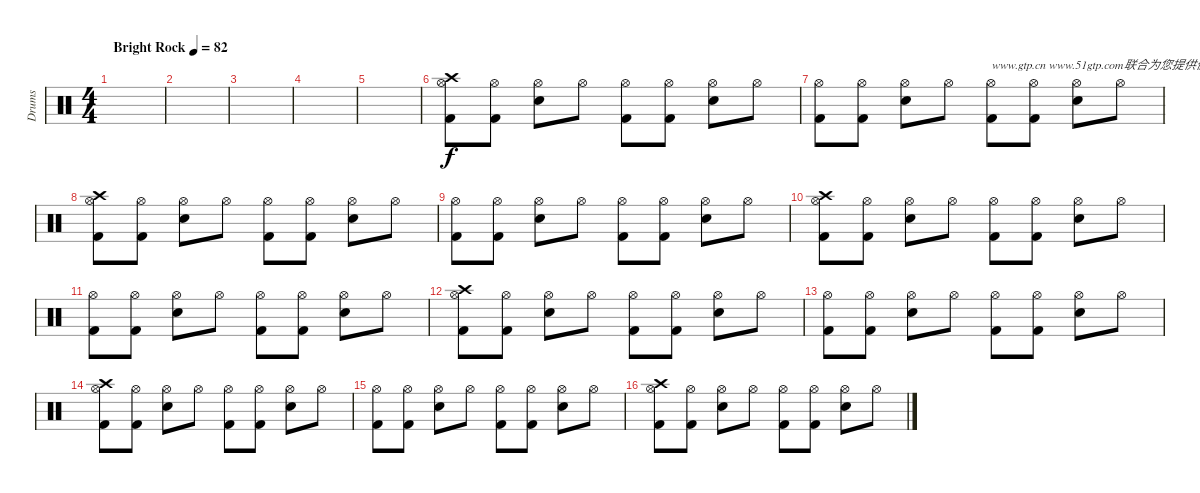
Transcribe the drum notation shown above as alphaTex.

\track ("Drums" "Drums") {instrument percussion}
\staff {score}
\articulation defaults
\ts (4 4)
\tempo (82 "Bright Rock")
\clef neutral
\ks c
|
|
|
|
|
("Hi-Hat (open)" "Crash high (hit)" "Kick (hit) 2").8 ("Hi-Hat (open)" "Kick (hit) 2").8 ("Hi-Hat (open)" "Electric Snare (hit)").8 "Hi-Hat (open)".8 ("Hi-Hat (open)" "Kick (hit) 2").8 ("Hi-Hat (open)" "Kick (hit) 2").8 ("Hi-Hat (open)" "Electric Snare (hit)").8 "Hi-Hat (open)".8 |
("Hi-Hat (open)" "Kick (hit) 2").8 ("Hi-Hat (open)" "Kick (hit) 2").8 ("Hi-Hat (open)" "Electric Snare (hit)").8 "Hi-Hat (open)".8 ("Hi-Hat (open)" "Kick (hit) 2").8{txt "www.gtp.cn www.51gtp.com联合为您提供优秀的GTP!"} ("Hi-Hat (open)" "Kick (hit) 2").8 ("Hi-Hat (open)" "Electric Snare (hit)").8 "Hi-Hat (open)".8 |
("Hi-Hat (open)" "Crash high (hit)" "Kick (hit) 2").8 ("Hi-Hat (open)" "Kick (hit) 2").8 ("Hi-Hat (open)" "Electric Snare (hit)").8 "Hi-Hat (open)".8 ("Hi-Hat (open)" "Kick (hit) 2").8 ("Hi-Hat (open)" "Kick (hit) 2").8 ("Hi-Hat (open)" "Electric Snare (hit)").8 "Hi-Hat (open)".8 |
("Hi-Hat (open)" "Kick (hit) 2").8 ("Hi-Hat (open)" "Kick (hit) 2").8 ("Hi-Hat (open)" "Electric Snare (hit)").8 "Hi-Hat (open)".8 ("Hi-Hat (open)" "Kick (hit) 2").8 ("Hi-Hat (open)" "Kick (hit) 2").8 ("Hi-Hat (open)" "Electric Snare (hit)").8 "Hi-Hat (open)".8 |
("Hi-Hat (open)" "Crash high (hit)" "Kick (hit) 2").8 ("Hi-Hat (open)" "Kick (hit) 2").8 ("Hi-Hat (open)" "Electric Snare (hit)").8 "Hi-Hat (open)".8 ("Hi-Hat (open)" "Kick (hit) 2").8 ("Hi-Hat (open)" "Kick (hit) 2").8 ("Hi-Hat (open)" "Electric Snare (hit)").8 "Hi-Hat (open)".8 |
("Hi-Hat (open)" "Kick (hit) 2").8 ("Hi-Hat (open)" "Kick (hit) 2").8 ("Hi-Hat (open)" "Electric Snare (hit)").8 "Hi-Hat (open)".8 ("Hi-Hat (open)" "Kick (hit) 2").8 ("Hi-Hat (open)" "Kick (hit) 2").8 ("Hi-Hat (open)" "Electric Snare (hit)").8 "Hi-Hat (open)".8 |
("Hi-Hat (open)" "Crash high (hit)" "Kick (hit) 2").8 ("Hi-Hat (open)" "Kick (hit) 2").8 ("Hi-Hat (open)" "Electric Snare (hit)").8 "Hi-Hat (open)".8 ("Hi-Hat (open)" "Kick (hit) 2").8 ("Hi-Hat (open)" "Kick (hit) 2").8 ("Hi-Hat (open)" "Electric Snare (hit)").8 "Hi-Hat (open)".8 |
("Hi-Hat (open)" "Kick (hit) 2").8 ("Hi-Hat (open)" "Kick (hit) 2").8 ("Hi-Hat (open)" "Electric Snare (hit)").8 "Hi-Hat (open)".8 ("Hi-Hat (open)" "Kick (hit) 2").8 ("Hi-Hat (open)" "Kick (hit) 2").8 ("Hi-Hat (open)" "Electric Snare (hit)").8 "Hi-Hat (open)".8 |
("Hi-Hat (open)" "Crash high (hit)" "Kick (hit) 2").8 ("Hi-Hat (open)" "Kick (hit) 2").8 ("Hi-Hat (open)" "Electric Snare (hit)").8 "Hi-Hat (open)".8 ("Hi-Hat (open)" "Kick (hit) 2").8 ("Hi-Hat (open)" "Kick (hit) 2").8 ("Hi-Hat (open)" "Electric Snare (hit)").8 "Hi-Hat (open)".8 |
("Hi-Hat (open)" "Kick (hit) 2").8 ("Hi-Hat (open)" "Kick (hit) 2").8 ("Hi-Hat (open)" "Electric Snare (hit)").8 "Hi-Hat (open)".8 ("Hi-Hat (open)" "Kick (hit) 2").8 ("Hi-Hat (open)" "Kick (hit) 2").8 ("Hi-Hat (open)" "Electric Snare (hit)").8 "Hi-Hat (open)".8 |
("Hi-Hat (open)" "Crash high (hit)" "Kick (hit) 2").8 ("Hi-Hat (open)" "Kick (hit) 2").8 ("Hi-Hat (open)" "Electric Snare (hit)").8 "Hi-Hat (open)".8 ("Hi-Hat (open)" "Kick (hit) 2").8 ("Hi-Hat (open)" "Kick (hit) 2").8 ("Hi-Hat (open)" "Electric Snare (hit)").8 "Hi-Hat (open)".8
